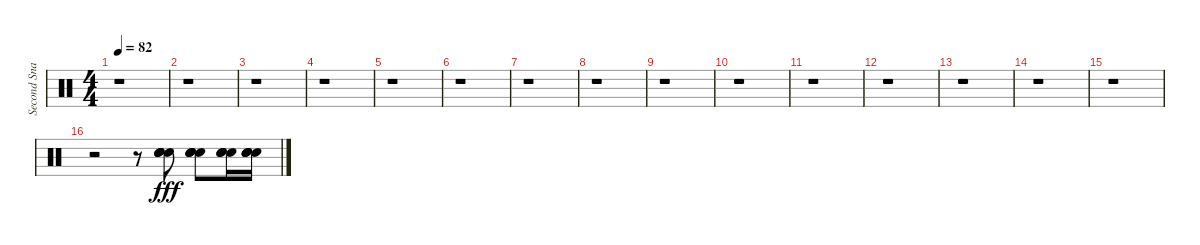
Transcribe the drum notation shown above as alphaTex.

\track ("Second Snare" "Second Sna") {instrument percussion}
\staff {score}
\articulation defaults
\ts (4 4)
\tempo 82
\clef neutral
\ks c
r.1{dy fff} |
r.1 |
r.1 |
r.1 |
r.1 |
r.1 |
r.1 |
r.1 |
r.1 |
r.1 |
r.1 |
r.1 |
r.1 |
r.1 |
r.1 |
r.2 r.8 ("Snare (hit) 2" "Snare (hit) 2" "Electric Snare (hit)" "Electric Snare (hit)").8 ("Snare (hit) 2" "Snare (hit) 2" "Electric Snare (hit)" "Electric Snare (hit)").8 ("Snare (hit) 2" "Snare (hit) 2" "Electric Snare (hit)" "Electric Snare (hit)").16 ("Snare (hit) 2" "Snare (hit) 2" "Electric Snare (hit)" "Electric Snare (hit)").16
